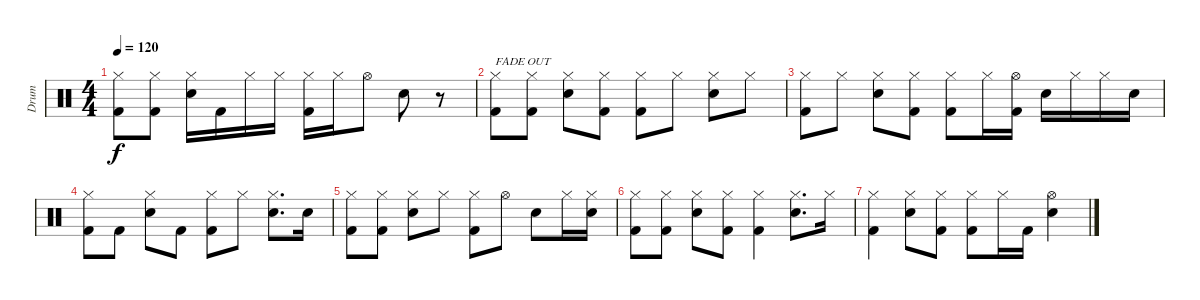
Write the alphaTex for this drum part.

\track ("Drum" "Drum") {instrument percussion}
\staff {score}
\articulation defaults
\ts (4 4)
\tempo 120
\clef neutral
\ks c
("Kick (hit) 2" "Hi-Hat (closed)").8{dy f} ("Kick (hit) 2" "Hi-Hat (closed)").8 ("Snare (hit) 2" "Hi-Hat (closed)").16 "Kick (hit) 2".16 "Hi-Hat (closed)".16 "Hi-Hat (closed)".16 ("Kick (hit) 2" "Hi-Hat (closed)").16 "Hi-Hat (closed)".16 "Hi-Hat (open)".8 "Snare (hit) 2".8 r.8 |
("Kick (hit) 2" "Hi-Hat (closed)").8{txt "FADE OUT"} ("Kick (hit) 2" "Hi-Hat (closed)").8 ("Snare (hit) 2" "Hi-Hat (closed)").8 ("Kick (hit) 2" "Hi-Hat (closed)").8 ("Kick (hit) 2" "Hi-Hat (closed)").8 "Hi-Hat (closed)".8 ("Snare (hit) 2" "Hi-Hat (closed)").8 "Hi-Hat (closed)".8 |
("Kick (hit) 2" "Hi-Hat (closed)").8 "Hi-Hat (closed)".8 ("Snare (hit) 2" "Hi-Hat (closed)").8 ("Kick (hit) 2" "Hi-Hat (closed)").8 ("Kick (hit) 2" "Hi-Hat (closed)").8 "Hi-Hat (closed)".16 ("Kick (hit) 2" "Hi-Hat (open)").16 "Snare (hit) 2".16 "Hi-Hat (closed)".16 "Hi-Hat (closed)".16 "Snare (hit) 2".16 |
("Kick (hit) 2" "Hi-Hat (closed)").8 "Kick (hit) 2".8 ("Snare (hit) 2" "Hi-Hat (closed)").8 "Kick (hit) 2".8 ("Kick (hit) 2" "Hi-Hat (closed)").8 "Hi-Hat (closed)".8 ("Snare (hit) 2" "Hi-Hat (closed)").8{d} "Snare (hit) 2".16 |
("Kick (hit) 2" "Hi-Hat (closed)").8 ("Kick (hit) 2" "Hi-Hat (closed)").8 ("Snare (hit) 2" "Hi-Hat (closed)").8 "Hi-Hat (closed)".8 ("Kick (hit) 2" "Hi-Hat (closed)").8 "Hi-Hat (open)".8 "Snare (hit) 2".8 "Hi-Hat (closed)".16 ("Snare (hit) 2" "Hi-Hat (closed)").16 |
("Kick (hit) 2" "Hi-Hat (closed)").8 ("Kick (hit) 2" "Hi-Hat (closed)").8 ("Snare (hit) 2" "Hi-Hat (closed)").8 ("Kick (hit) 2" "Hi-Hat (closed)").8 ("Kick (hit) 2" "Hi-Hat (closed)").4 ("Snare (hit) 2" "Hi-Hat (closed)").8{d} "Hi-Hat (closed)".16 |
("Kick (hit) 2" "Hi-Hat (closed)").4 ("Snare (hit) 2" "Hi-Hat (closed)").8 ("Kick (hit) 2" "Hi-Hat (closed)").8 ("Kick (hit) 2" "Hi-Hat (closed)").8 "Hi-Hat (closed)".16 "Kick (hit) 2".16 ("Snare (hit) 2" "Hi-Hat (open)").4
